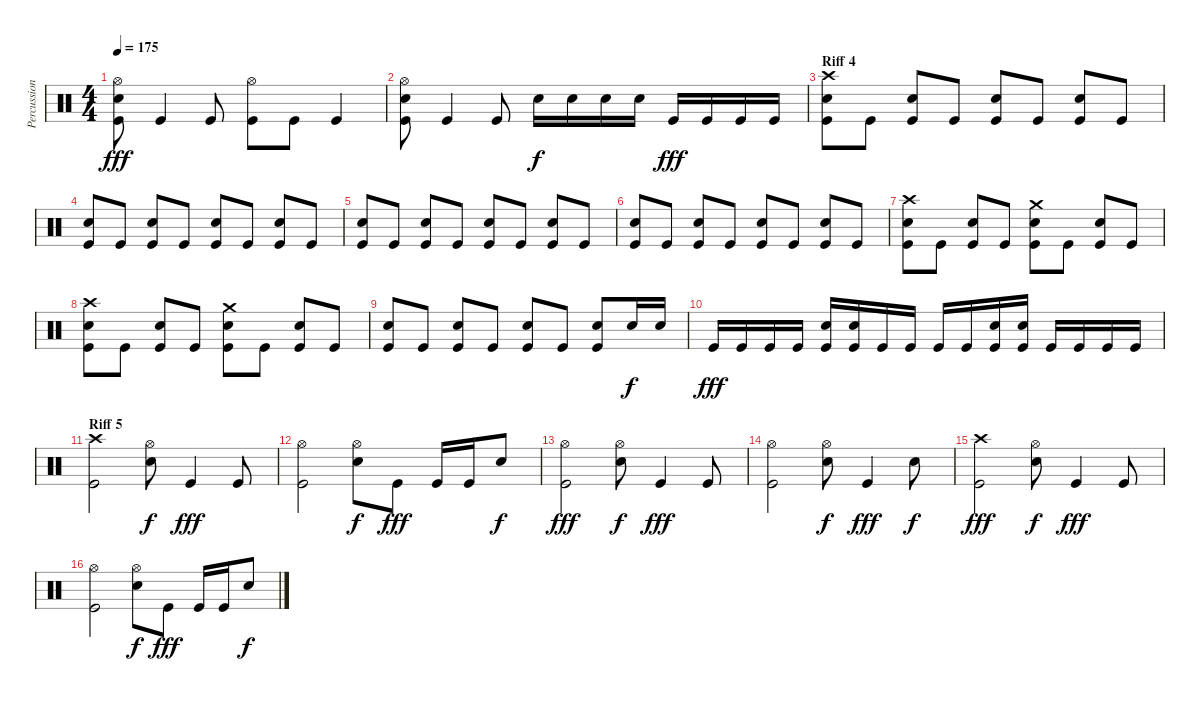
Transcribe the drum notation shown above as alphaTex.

\track ("Percussions" "Percussion") {instrument percussion}
\staff {score}
\articulation defaults
\ts (4 4)
\tempo 175
\clef neutral
\ks c
("Hi-Hat (open)" "Electric Snare (hit)" "Kick (hit)").8{dy fff} "Kick (hit)".4 "Kick (hit)".8 ("Hi-Hat (open)" "Kick (hit)").8 "Kick (hit)".8 "Kick (hit)".4 |
("Hi-Hat (open)" "Electric Snare (hit)" "Kick (hit)").8 "Kick (hit)".4 "Kick (hit)".8 "Electric Snare (hit)".16{dy f} "Electric Snare (hit)".16 "Electric Snare (hit)".16 "Electric Snare (hit)".16 "Kick (hit)".16{dy fff} "Kick (hit)".16 "Kick (hit)".16 "Kick (hit)".16 |
\section ("" "Riff 4")
("Crash high (hit)" "Electric Snare (hit)" "Kick (hit)").8 "Kick (hit)".8 ("Electric Snare (hit)" "Kick (hit)").8 "Kick (hit)".8 ("Electric Snare (hit)" "Kick (hit)").8 "Kick (hit)".8 ("Electric Snare (hit)" "Kick (hit)").8 "Kick (hit)".8 |
("Electric Snare (hit)" "Kick (hit)").8 "Kick (hit)".8 ("Electric Snare (hit)" "Kick (hit)").8 "Kick (hit)".8 ("Electric Snare (hit)" "Kick (hit)").8 "Kick (hit)".8 ("Electric Snare (hit)" "Kick (hit)").8 "Kick (hit)".8 |
("Electric Snare (hit)" "Kick (hit)").8 "Kick (hit)".8 ("Electric Snare (hit)" "Kick (hit)").8 "Kick (hit)".8 ("Electric Snare (hit)" "Kick (hit)").8 "Kick (hit)".8 ("Electric Snare (hit)" "Kick (hit)").8 "Kick (hit)".8 |
("Electric Snare (hit)" "Kick (hit)").8 "Kick (hit)".8 ("Electric Snare (hit)" "Kick (hit)").8 "Kick (hit)".8 ("Electric Snare (hit)" "Kick (hit)").8 "Kick (hit)".8 ("Electric Snare (hit)" "Kick (hit)").8 "Kick (hit)".8 |
("Crash high (hit)" "Electric Snare (hit)" "Kick (hit)").8 "Kick (hit)".8 ("Electric Snare (hit)" "Kick (hit)").8 "Kick (hit)".8 ("Crash medium (hit)" "Electric Snare (hit)" "Kick (hit)").8 "Kick (hit)".8 ("Electric Snare (hit)" "Kick (hit)").8 "Kick (hit)".8 |
("Crash high (hit)" "Electric Snare (hit)" "Kick (hit)").8 "Kick (hit)".8 ("Electric Snare (hit)" "Kick (hit)").8 "Kick (hit)".8 ("Crash medium (hit)" "Electric Snare (hit)" "Kick (hit)").8 "Kick (hit)".8 ("Electric Snare (hit)" "Kick (hit)").8 "Kick (hit)".8 |
("Electric Snare (hit)" "Kick (hit)").8 "Kick (hit)".8 ("Electric Snare (hit)" "Kick (hit)").8 "Kick (hit)".8 ("Electric Snare (hit)" "Kick (hit)").8 "Kick (hit)".8 ("Electric Snare (hit)" "Kick (hit)").8 "Snare (hit) 2".16{dy f} "Snare (hit) 2".16 |
"Kick (hit)".16{dy fff} "Kick (hit)".16 "Kick (hit)".16 "Kick (hit)".16 ("Snare (hit) 2" "Kick (hit)").16 ("Snare (hit) 2" "Kick (hit)").16 "Kick (hit)".16 "Kick (hit)".16 "Kick (hit)".16 "Kick (hit)".16 ("Electric Snare (hit)" "Kick (hit)").16 ("Electric Snare (hit)" "Kick (hit)").16 "Kick (hit)".16 "Kick (hit)".16 "Kick (hit)".16 "Kick (hit)".16 |
\section ("" "Riff 5")
("Crash high (hit)" "Kick (hit)").2 ("Hi-Hat (open)" "Electric Snare (hit)").8{dy f} "Kick (hit)".4{dy fff} "Kick (hit)".8 |
("Hi-Hat (open)" "Kick (hit)").2 ("Hi-Hat (open)" "Electric Snare (hit)").8{dy f} "Kick (hit)".8{dy fff} "Kick (hit)".16 "Kick (hit)".16 "Electric Snare (hit)".8{dy f} |
("Hi-Hat (open)" "Kick (hit)").2{dy fff} ("Hi-Hat (open)" "Electric Snare (hit)").8{dy f} "Kick (hit)".4{dy fff} "Kick (hit)".8 |
("Hi-Hat (open)" "Kick (hit)").2 ("Hi-Hat (open)" "Electric Snare (hit)").8{dy f} "Kick (hit)".4{dy fff} "Electric Snare (hit)".8{dy f} |
("Crash high (hit)" "Kick (hit)").2{dy fff} ("Hi-Hat (open)" "Electric Snare (hit)").8{dy f} "Kick (hit)".4{dy fff} "Kick (hit)".8 |
("Hi-Hat (open)" "Kick (hit)").2 ("Hi-Hat (open)" "Electric Snare (hit)").8{dy f} "Kick (hit)".8{dy fff} "Kick (hit)".16 "Kick (hit)".16 "Electric Snare (hit)".8{dy f}
